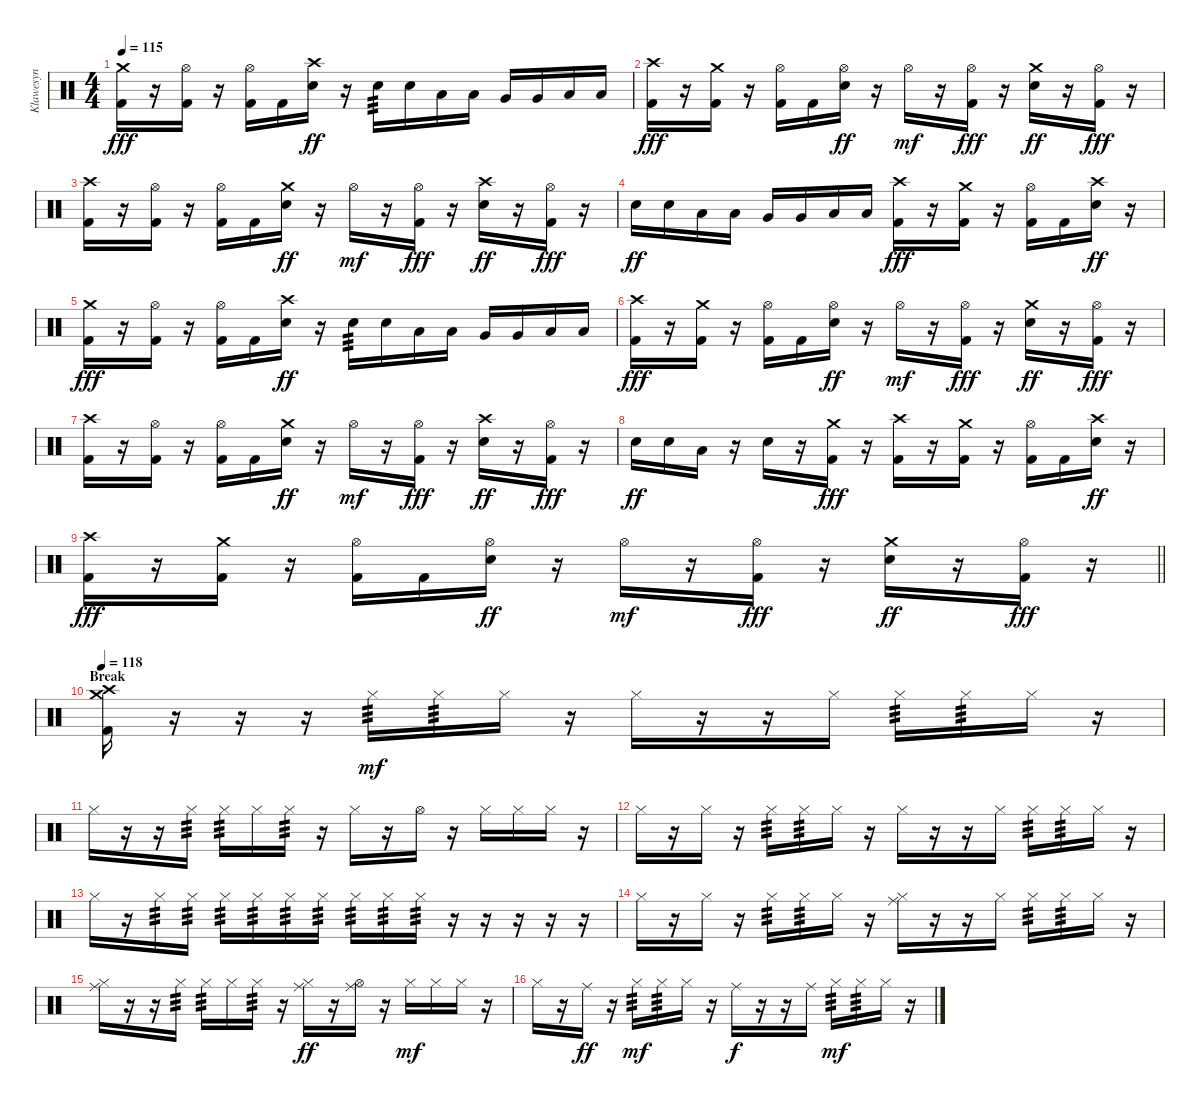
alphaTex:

\track ("Klawesyn" "Klawesyn") {instrument percussion}
\staff {score}
\articulation defaults
\ts (4 4)
\tempo 115
\clef neutral
\ks c
("Crash medium (hit)" "Kick (hit) 2").16{dy fff} r.16 ("Hi-Hat (open)" "Kick (hit) 2").16 r.16 ("Hi-Hat (open)" "Kick (hit) 2").16 "Kick (hit) 2".16 ("Crash high (hit)" "Electric Snare (hit)").16{dy ff} r.16 "Electric Snare (hit)".16{tp 3} "Electric Snare (hit)".16 "Low Tom (hit)".16 "Low Tom (hit)".16 "Very Low Tom (hit)".16 "Very Low Tom (hit)".16 "Low Floor Tom (hit)".16 "Low Floor Tom (hit)".16 |
("Crash high (hit)" "Kick (hit) 2").16{dy fff} r.16 ("Crash medium (hit)" "Kick (hit) 2").16 r.16 ("Hi-Hat (open)" "Kick (hit) 2").16 "Kick (hit) 2".16 ("Hi-Hat (open)" "Electric Snare (hit)").16{dy ff} r.16 "Hi-Hat (open)".16{dy mf} r.16 ("Hi-Hat (open)" "Kick (hit) 2").16{dy fff} r.16 ("Crash medium (hit)" "Electric Snare (hit)").16{dy ff} r.16 ("Hi-Hat (open)" "Kick (hit) 2").16{dy fff} r.16 |
("Crash high (hit)" "Kick (hit) 2").16 r.16 ("Hi-Hat (open)" "Kick (hit) 2").16 r.16 ("Hi-Hat (open)" "Kick (hit) 2").16 "Kick (hit) 2".16 ("Crash medium (hit)" "Electric Snare (hit)").16{dy ff} r.16 "Hi-Hat (open)".16{dy mf} r.16 ("Hi-Hat (open)" "Kick (hit) 2").16{dy fff} r.16 ("Crash high (hit)" "Electric Snare (hit)").16{dy ff} r.16 ("Hi-Hat (open)" "Kick (hit) 2").16{dy fff} r.16 |
"Electric Snare (hit)".16{dy ff} "Electric Snare (hit)".16 "Low Tom (hit)".16 "Low Tom (hit)".16 "Very Low Tom (hit)".16 "Very Low Tom (hit)".16 "Low Floor Tom (hit)".16 "Low Floor Tom (hit)".16 ("Crash high (hit)" "Kick (hit) 2").16{dy fff} r.16 ("Crash medium (hit)" "Kick (hit) 2").16 r.16 ("Hi-Hat (open)" "Kick (hit) 2").16 "Kick (hit) 2".16 ("Crash high (hit)" "Electric Snare (hit)").16{dy ff} r.16 |
("Crash medium (hit)" "Kick (hit) 2").16{dy fff} r.16 ("Hi-Hat (open)" "Kick (hit) 2").16 r.16 ("Hi-Hat (open)" "Kick (hit) 2").16 "Kick (hit) 2".16 ("Crash high (hit)" "Electric Snare (hit)").16{dy ff} r.16 "Electric Snare (hit)".16{tp 3} "Electric Snare (hit)".16 "Low Tom (hit)".16 "Low Tom (hit)".16 "Very Low Tom (hit)".16 "Very Low Tom (hit)".16 "Low Floor Tom (hit)".16 "Low Floor Tom (hit)".16 |
("Crash high (hit)" "Kick (hit) 2").16{dy fff} r.16 ("Crash medium (hit)" "Kick (hit) 2").16 r.16 ("Hi-Hat (open)" "Kick (hit) 2").16 "Kick (hit) 2".16 ("Hi-Hat (open)" "Electric Snare (hit)").16{dy ff} r.16 "Hi-Hat (open)".16{dy mf} r.16 ("Hi-Hat (open)" "Kick (hit) 2").16{dy fff} r.16 ("Crash medium (hit)" "Electric Snare (hit)").16{dy ff} r.16 ("Hi-Hat (open)" "Kick (hit) 2").16{dy fff} r.16 |
("Crash high (hit)" "Kick (hit) 2").16 r.16 ("Hi-Hat (open)" "Kick (hit) 2").16 r.16 ("Hi-Hat (open)" "Kick (hit) 2").16 "Kick (hit) 2".16 ("Crash medium (hit)" "Electric Snare (hit)").16{dy ff} r.16 "Hi-Hat (open)".16{dy mf} r.16 ("Hi-Hat (open)" "Kick (hit) 2").16{dy fff} r.16 ("Crash high (hit)" "Electric Snare (hit)").16{dy ff} r.16 ("Hi-Hat (open)" "Kick (hit) 2").16{dy fff} r.16 |
"Electric Snare (hit)".16{dy ff} "Electric Snare (hit)".16 "Low Tom (hit)".16 r.16 "Electric Snare (hit)".16 r.16 ("Crash medium (hit)" "Kick (hit) 2").16{dy fff} r.16 ("Crash high (hit)" "Kick (hit) 2").16 r.16 ("Crash medium (hit)" "Kick (hit) 2").16 r.16 ("Hi-Hat (open)" "Kick (hit) 2").16 "Kick (hit) 2".16 ("Crash high (hit)" "Electric Snare (hit)").16{dy ff} r.16 |
\barLineRight lightlight
("Crash high (hit)" "Kick (hit) 2").16{dy fff} r.16 ("Crash medium (hit)" "Kick (hit) 2").16 r.16 ("Hi-Hat (open)" "Kick (hit) 2").16 "Kick (hit) 2".16 ("Hi-Hat (open)" "Electric Snare (hit)").16{dy ff} r.16 "Hi-Hat (open)".16{dy mf} r.16 ("Hi-Hat (open)" "Kick (hit) 2").16{dy fff} r.16 ("Crash medium (hit)" "Electric Snare (hit)").16{dy ff} r.16 ("Hi-Hat (open)" "Kick (hit) 2").16{dy fff} r.16 |
\section ("" "Break")
\tempo 118
("Crash medium (hit)" "Crash high (hit)" "Kick (hit) 2").16{volume 10} r.16 r.16 r.16 "Hi-Hat (closed)".16{tp 3 dy mf} "Hi-Hat (closed)".16{tp 3} "Hi-Hat (closed)".16 r.16 "Hi-Hat (closed)".16 r.16 r.16 "Hi-Hat (closed)".16 "Hi-Hat (closed)".16{tp 3} "Hi-Hat (closed)".16{tp 3} "Hi-Hat (closed)".16 r.16 |
"Hi-Hat (closed)".16 r.16 r.16 "Hi-Hat (closed)".16{tp 3} "Hi-Hat (closed)".16{tp 3} "Hi-Hat (closed)".16 "Hi-Hat (closed)".16{tp 3} r.16 "Hi-Hat (closed)".16 r.16 "Hi-Hat (open)".16 r.16 "Hi-Hat (closed)".16 "Hi-Hat (closed)".16 "Hi-Hat (closed)".16 r.16 |
"Hi-Hat (closed)".16 r.16 "Hi-Hat (closed)".16 r.16 "Hi-Hat (closed)".16{tp 3} "Hi-Hat (closed)".16{tp 3} "Hi-Hat (closed)".16 r.16 "Hi-Hat (closed)".16 r.16 r.16 "Hi-Hat (closed)".16 "Hi-Hat (closed)".16{tp 3} "Hi-Hat (closed)".16{tp 3} "Hi-Hat (closed)".16 r.16 |
"Hi-Hat (closed)".16 r.16 "Hi-Hat (closed)".16{tp 3} "Hi-Hat (closed)".16{tp 3} "Hi-Hat (closed)".16{tp 3} "Hi-Hat (closed)".16{tp 3} "Hi-Hat (closed)".16{tp 3} "Hi-Hat (closed)".16{tp 3} "Hi-Hat (closed)".16{tp 3} "Hi-Hat (closed)".16{tp 3} "Hi-Hat (closed)".16{tp 3} r.16 r.16 r.16 r.16 r.16 |
"Hi-Hat (closed)".16 r.16 "Hi-Hat (closed)".16 r.16 "Hi-Hat (closed)".16{tp 3} "Hi-Hat (closed)".16{tp 3} "Hi-Hat (closed)".16 r.16 ("Hi-Hat (closed)" "Ride (middle)").16 r.16 r.16 "Hi-Hat (closed)".16 "Hi-Hat (closed)".16{tp 3} "Hi-Hat (closed)".16{tp 3} "Hi-Hat (closed)".16 r.16 |
("Hi-Hat (closed)" "Ride (middle)").16 r.16 r.16 "Hi-Hat (closed)".16{tp 3} "Hi-Hat (closed)".16{tp 3} "Hi-Hat (closed)".16 "Hi-Hat (closed)".16{tp 3} r.16 ("Hi-Hat (closed)" "Ride (middle)").16{dy ff} r.16 ("Hi-Hat (open)" "Ride (middle)").16 r.16 "Hi-Hat (closed)".16{dy mf} "Hi-Hat (closed)".16 "Hi-Hat (closed)".16 r.16 |
"Hi-Hat (closed)".16 r.16 "Ride (middle)".16{dy ff} r.16 "Hi-Hat (closed)".16{tp 3 dy mf} "Hi-Hat (closed)".16{tp 3} "Hi-Hat (closed)".16 r.16 "Ride (middle)".16{dy f} r.16 r.16 "Ride (middle)".16 "Hi-Hat (closed)".16{tp 3 dy mf} "Hi-Hat (closed)".16{tp 3} "Hi-Hat (closed)".16 r.16
